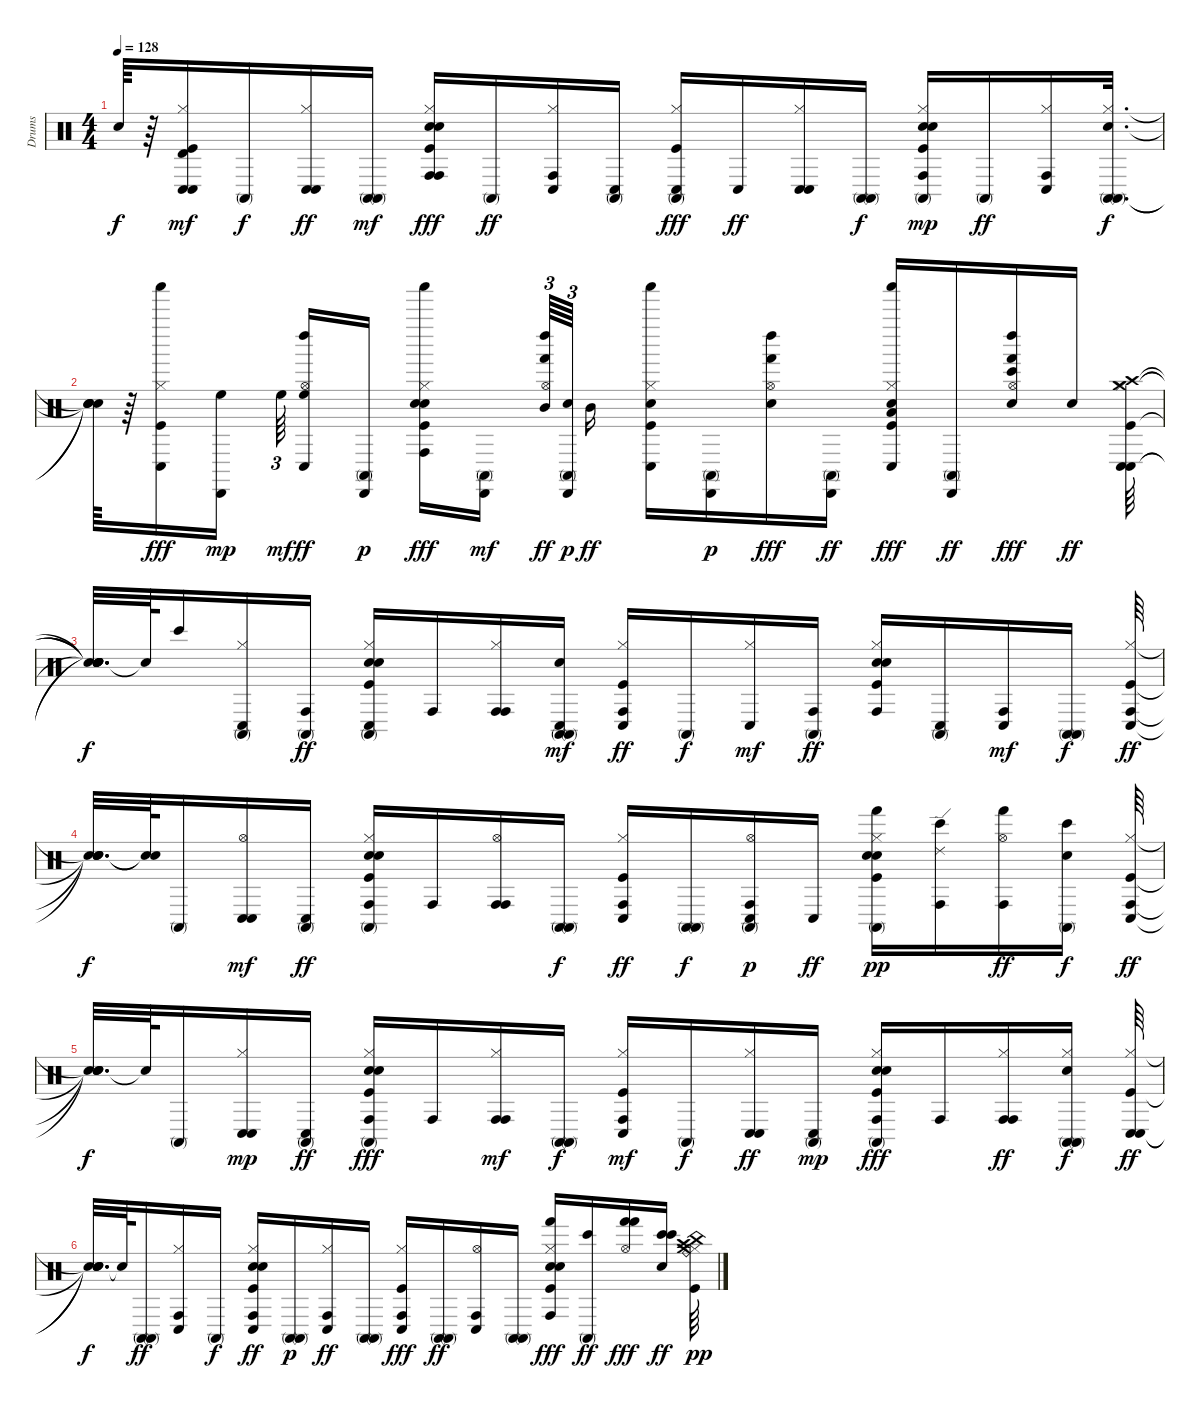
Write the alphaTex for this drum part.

\track ("Drums" "Drums") {instrument percussion}
\staff {score}
\articulation defaults
\ts (4 4)
\tempo 128
\clef neutral
\ks c "Snare (hit)"{t}.64{dy f}
r.64 ("Kick (hit)" "Hi-Hat (closed)" "Conga low (hit)" "Conga low (hit)" "Timbale high (hit)").16{dy mf} "Conga high (mute)".16{dy f} ("Hi-Hat (closed)" "Conga low (hit)" "Conga low (hit)").16{dy ff} ("Conga high (mute)" "Conga high (mute)").16{dy mf} ("Kick (hit)" "Snare (hit) 2" "Hand Clap (hit)" "Hi-Hat (closed)" "Conga high (hit)" "Conga high (hit)").16{dy fff} "Conga high (mute)".16{dy ff} ("Hi-Hat (closed)" "Conga low (hit)" "Conga high (hit)").16 ("Conga low (hit)" "Conga high (mute)").16 ("Kick (hit)" "Hi-Hat (closed)" "Conga high (mute)" "Conga low (hit)").16{dy fff} "Conga low (hit)".16{dy ff} ("Hi-Hat (closed)" "Conga low (hit)" "Conga low (hit)").16 ("Conga high (mute)" "Conga high (mute)").16{dy f} ("Kick (hit)" "Snare (hit) 2" "Hand Clap (hit)" "Hi-Hat (closed)" "Conga high (hit)" "Conga high (mute)").16{dy mp} "Conga high (mute)".16{dy ff} ("Hi-Hat (closed)" "Conga low (hit)" "Conga high (hit)").16 ("Snare (hit) 2" "Hi-Hat (closed)" "Conga high (mute)" "Conga high (mute)").32{d dy f} |
("Snare (hit)"{t} "Snare (hit)"{t} "Snare (hit)"{t} "Snare (hit)"{t}).64 r.64 ("Kick (hit)" "Hi-Hat (closed)" "Shaker (hit)" "Conga low (hit)").16{dy fff} ("Cabasa (hit)" "High Floor Tom (hit)").16{dy mp} "High Floor Tom (hit)".64{tu (3 2) dy mf} ("Hi-Hat (open)" "Left Maraca (hit)" "High Floor Tom (hit)" "Conga low (hit)").16{dy ff} ("Cabasa (hit)" "Conga high (mute)").16{dy p} ("Kick (hit)" "Snare (hit) 2" "Hand Clap (hit)" "Hi-Hat (closed)" "Shaker (hit)" "Conga high (hit)").16{dy fff} ("Cabasa (hit)" "Conga high (mute)").16{dy mf} ("Hi-Hat (open)" "Left Maraca (hit)" "Hand (hit)" "Mid Tom (hit)").64{tu (3 2) dy ff} ("Snare (hit) 2" "Cabasa (hit)" "Conga high (mute)").64{tu (3 2) dy p} "Mid Tom (hit)".16{dy ff} ("Kick (hit)" "Snare (hit) 2" "Hi-Hat (closed)" "Shaker (hit)" "Conga low (hit)").16 ("Cabasa (hit)" "Conga high (mute)").16{dy p} ("Snare (hit) 2" "Hi-Hat (open)" "Left Maraca (hit)" "Hand (hit)").16{dy fff} ("Cabasa (hit)" "Conga high (mute)").16{dy ff} ("Low Tom (hit)" "Kick (hit)" "Hand Clap (hit)" "Hi-Hat (closed)" "Shaker (hit)" "Conga low (hit)").16{dy fff} ("Cabasa (hit)" "Conga high (mute)").16{dy ff} ("Snare (hit) 2" "Hi-Hat (open)" "Left Maraca (hit)" "Hand (hit)" "Bongo High (hit)").16{dy fff} "Snare (hit) 2".16{dy ff} ("Kick (hit)" "Hi-Hat (closed)" "Crash medium (hit)" "Crash high (hit)" "Conga low (hit)" "Conga low (hit)").64 |
("Snare (hit)"{t} "Snare (hit)"{t} "Snare (hit)"{t} "Snare (hit)"{t} "Snare (hit)"{t} "Snare (hit)"{t}).32{d dy f} "Snare (hit)"{t}.64 "Bongo High (hit)".16 ("Hi-Hat (closed)" "Conga high (mute)" "Conga low (hit)").16 ("Conga high (hit)" "Conga high (mute)").16{dy ff} ("Kick (hit)" "Snare (hit) 2" "Hand Clap (hit)" "Hi-Hat (closed)" "Conga high (mute)" "Conga low (hit)").16 "Conga high (hit)".16 ("Hi-Hat (closed)" "Conga high (hit)" "Conga high (hit)").16 ("Snare (hit) 2" "Conga high (mute)" "Conga high (mute)" "Conga low (hit)").16{dy mf} ("Kick (hit)" "Hi-Hat (closed)" "Conga high (hit)" "Conga low (hit)").16{dy ff} "Conga high (mute)".16{dy f} ("Hi-Hat (closed)" "Conga low (hit)").16{dy mf} ("Conga high (hit)" "Conga high (mute)").16{dy ff} ("Kick (hit)" "Snare (hit) 2" "Hand Clap (hit)" "Hi-Hat (closed)" "Conga high (hit)").16 ("Conga high (mute)" "Conga low (hit)").16 ("Conga low (hit)" "Conga high (hit)").16{dy mf} ("Conga high (mute)" "Conga high (mute)").16{dy f} ("Kick (hit)" "Hi-Hat (closed)" "Conga high (hit)" "Conga low (hit)").64{dy ff} |
("Snare (hit)"{t} "Snare (hit)"{t} "Snare (hit)"{t} "Snare (hit)"{t}).32{d dy f} ("Snare (hit)"{t} "Snare (hit)"{t}).64 "Conga high (mute)".16 ("Hi-Hat (open)" "Conga low (hit)" "Conga low (hit)").16{dy mf} ("Conga low (hit)" "Conga high (mute)").16{dy ff} ("Kick (hit)" "Snare (hit) 2" "Hand Clap (hit)" "Hi-Hat (closed)" "Conga high (mute)" "Conga high (hit)").16 "Conga high (hit)".16 ("Hi-Hat (open)" "Conga high (hit)" "Conga high (hit)").16 ("Conga high (mute)" "Conga high (mute)").16{dy f} ("Kick (hit)" "Hi-Hat (closed)" "Conga high (hit)" "Conga low (hit)").16{dy ff} ("Conga high (mute)" "Conga high (mute)").16{dy f} ("Hi-Hat (open)" "Conga low (hit)" "Conga high (hit)" "Conga high (mute)").16{dy p} "Conga low (hit)".16{dy ff} ("Kick (hit)" "Snare (hit) 2" "Hand Clap (hit)" "Hi-Hat (closed)" "Conga high (mute)" "Hand (hit)").16{dy pp} ("Conga high (hit)" "Bongo High (hit)" "Ride (edge) 2").16 ("Hi-Hat (open)" "Conga high (hit)" "Hand (hit)").16{dy ff} ("Snare (hit) 2" "Conga high (mute)" "Bongo High (hit)").16{dy f} ("Kick (hit)" "Hi-Hat (closed)" "Conga high (hit)" "Conga low (hit)").64{dy ff} |
("Snare (hit)"{t} "Snare (hit)"{t} "Snare (hit)"{t} "Snare (hit)"{t}).32{d dy f} "Snare (hit)"{t}.64 "Conga high (mute)".16 ("Hi-Hat (closed)" "Conga low (hit)" "Conga low (hit)").16{dy mp} ("Conga low (hit)" "Conga high (mute)").16{dy ff} ("Kick (hit)" "Snare (hit) 2" "Hand Clap (hit)" "Hi-Hat (closed)" "Conga high (mute)" "Conga high (hit)").16{dy fff} "Conga high (hit)".16 ("Hi-Hat (closed)" "Conga high (hit)" "Conga high (hit)").16{dy mf} ("Conga high (mute)" "Conga high (mute)").16{dy f} ("Kick (hit)" "Hi-Hat (closed)" "Conga high (hit)" "Conga low (hit)").16{dy mf} "Conga high (mute)".16{dy f} ("Hi-Hat (closed)" "Conga low (hit)" "Conga low (hit)").16{dy ff} ("Conga low (hit)" "Conga high (mute)").16{dy mp} ("Kick (hit)" "Snare (hit) 2" "Hand Clap (hit)" "Hi-Hat (closed)" "Conga high (mute)" "Conga high (hit)").16{dy fff} "Conga high (hit)".16 ("Hi-Hat (closed)" "Conga high (hit)" "Conga high (hit)").16{dy ff} ("Snare (hit) 2" "Hi-Hat (closed)" "Conga high (mute)" "Conga high (mute)").16{dy f} ("Kick (hit)" "Hi-Hat (closed)" "Conga low (hit)" "Conga low (hit)").64{dy ff} |
("Snare (hit)"{t} "Snare (hit)"{t} "Snare (hit)"{t} "Snare (hit)"{t}).32{d dy f} "Snare (hit)"{t}.64 ("Conga high (mute)" "Conga high (mute)").16{dy ff} ("Hi-Hat (closed)" "Conga high (hit)" "Conga low (hit)").16 "Conga high (mute)".16{dy f} ("Kick (hit)" "Snare (hit) 2" "Hand Clap (hit)" "Hi-Hat (closed)" "Conga low (hit)" "Conga high (hit)").16{dy ff} ("Conga high (mute)" "Conga high (mute)").16{dy p} ("Hi-Hat (closed)" "Conga high (hit)" "Conga low (hit)").16{dy ff} ("Conga high (mute)" "Conga high (mute)").16 ("Kick (hit)" "Hi-Hat (closed)" "Conga low (hit)" "Conga high (hit)").16{dy fff} ("Conga high (mute)" "Conga high (mute)").16{dy ff} ("Hi-Hat (open)" "Conga high (hit)" "Conga low (hit)").16 ("Conga high (mute)" "Conga high (mute)").16 ("Kick (hit)" "Snare (hit) 2" "Hand Clap (hit)" "Hi-Hat (closed)" "Hand (hit)" "Conga high (hit)").16{dy fff} ("Bongo High (hit)" "Conga high (mute)").16{dy ff} ("Hi-Hat (open)" "Hand (hit)" "Hand (hit)").16{dy fff} ("Snare (hit) 2" "Bongo High (hit)" "Bongo High (hit)").16{dy ff} ("Kick (hit)" "Hi-Hat (closed)" "Crash medium (hit)" "Crash high (hit)" "Ride (bell)" "China (hit)").64{dy pp}
